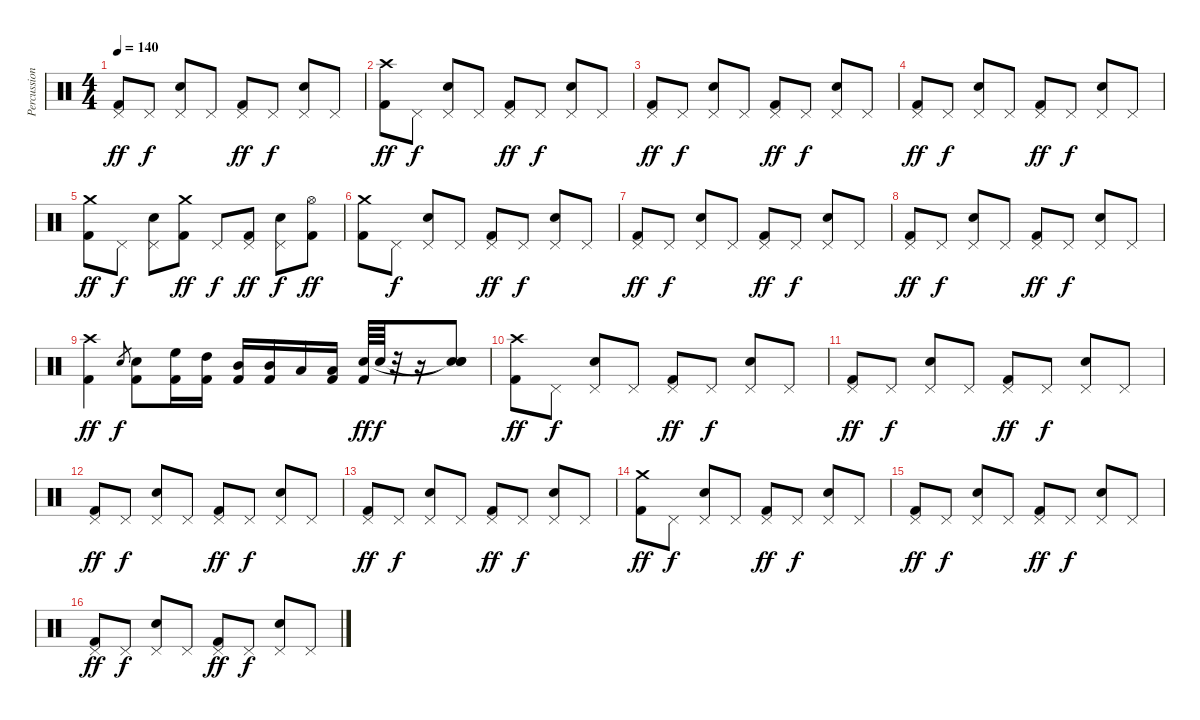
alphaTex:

\track ("Percussion" "Percussion") {instrument percussion}
\staff {score}
\articulation defaults
\ts (4 4)
\tempo 140
\clef neutral
\ks c
("Pedal Hi-Hat (hit)" "Kick (hit) 2").8{dy ff} "Pedal Hi-Hat (hit)".8{dy f} ("Pedal Hi-Hat (hit)" "Snare (hit) 2").8 "Pedal Hi-Hat (hit)".8 ("Pedal Hi-Hat (hit)" "Kick (hit) 2").8{dy ff} "Pedal Hi-Hat (hit)".8{dy f} ("Pedal Hi-Hat (hit)" "Snare (hit) 2").8 "Pedal Hi-Hat (hit)".8 |
("Crash high (hit)" "Kick (hit) 2").8{dy ff} "Pedal Hi-Hat (hit)".8{dy f} ("Pedal Hi-Hat (hit)" "Snare (hit) 2").8 "Pedal Hi-Hat (hit)".8 ("Pedal Hi-Hat (hit)" "Kick (hit) 2").8{dy ff} "Pedal Hi-Hat (hit)".8{dy f} ("Pedal Hi-Hat (hit)" "Snare (hit) 2").8 "Pedal Hi-Hat (hit)".8 |
("Pedal Hi-Hat (hit)" "Kick (hit) 2").8{dy ff} "Pedal Hi-Hat (hit)".8{dy f} ("Pedal Hi-Hat (hit)" "Snare (hit) 2").8 "Pedal Hi-Hat (hit)".8 ("Pedal Hi-Hat (hit)" "Kick (hit) 2").8{dy ff} "Pedal Hi-Hat (hit)".8{dy f} ("Pedal Hi-Hat (hit)" "Snare (hit) 2").8 "Pedal Hi-Hat (hit)".8 |
("Pedal Hi-Hat (hit)" "Kick (hit) 2").8{dy ff} "Pedal Hi-Hat (hit)".8{dy f} ("Pedal Hi-Hat (hit)" "Snare (hit) 2").8 "Pedal Hi-Hat (hit)".8 ("Pedal Hi-Hat (hit)" "Kick (hit) 2").8{dy ff} "Pedal Hi-Hat (hit)".8{dy f} ("Pedal Hi-Hat (hit)" "Snare (hit) 2").8 "Pedal Hi-Hat (hit)".8 |
("Crash medium (hit)" "Kick (hit) 2").8{dy ff} "Pedal Hi-Hat (hit)".8{dy f} ("Pedal Hi-Hat (hit)" "Snare (hit) 2").8 ("Crash medium (hit)" "Kick (hit) 2").8{dy ff} "Pedal Hi-Hat (hit)".8{dy f} ("Pedal Hi-Hat (hit)" "Kick (hit) 2").8{dy ff} ("Pedal Hi-Hat (hit)" "Snare (hit) 2").8{dy f} ("Hi-Hat (open)" "Kick (hit) 2").8{dy ff} |
("Crash medium (hit)" "Kick (hit) 2").8 "Pedal Hi-Hat (hit)".8{dy f} ("Pedal Hi-Hat (hit)" "Snare (hit) 2").8 "Pedal Hi-Hat (hit)".8 ("Pedal Hi-Hat (hit)" "Kick (hit) 2").8{dy ff} "Pedal Hi-Hat (hit)".8{dy f} ("Pedal Hi-Hat (hit)" "Snare (hit) 2").8 "Pedal Hi-Hat (hit)".8 |
("Pedal Hi-Hat (hit)" "Kick (hit) 2").8{dy ff} "Pedal Hi-Hat (hit)".8{dy f} ("Pedal Hi-Hat (hit)" "Snare (hit) 2").8 "Pedal Hi-Hat (hit)".8 ("Pedal Hi-Hat (hit)" "Kick (hit) 2").8{dy ff} "Pedal Hi-Hat (hit)".8{dy f} ("Pedal Hi-Hat (hit)" "Snare (hit) 2").8 "Pedal Hi-Hat (hit)".8 |
("Pedal Hi-Hat (hit)" "Kick (hit) 2").8{dy ff} "Pedal Hi-Hat (hit)".8{dy f} ("Pedal Hi-Hat (hit)" "Snare (hit) 2").8 "Pedal Hi-Hat (hit)".8 ("Pedal Hi-Hat (hit)" "Kick (hit) 2").8{dy ff} "Pedal Hi-Hat (hit)".8{dy f} ("Pedal Hi-Hat (hit)" "Snare (hit) 2").8 "Pedal Hi-Hat (hit)".8 |
("Crash high (hit)" "Kick (hit) 2").4{dy ff} "Snare (hit) 2".8{gr dy f} ("Snare (hit) 2" "Kick (hit) 2").8 ("High Floor Tom (hit)" "Kick (hit) 2").16 ("High Tom (hit)" "Kick (hit) 2").16 ("Mid Tom (hit)" "Kick (hit) 2").16 ("Mid Tom (hit)" "Kick (hit) 2").16 "Low Tom (hit)".16 ("Low Tom (hit)" "Kick (hit) 2").16 ("Kick (hit) 2" "Snare (hit) 2").64{dy ff} "Snare (hit) 2".64{dy f} r.32 r.16 ("Snare (hit)"{t} "Snare (hit)"{t} "Snare (hit)").8 |
("Crash high (hit)" "Kick (hit) 2").8{dy ff} "Pedal Hi-Hat (hit)".8{dy f} ("Pedal Hi-Hat (hit)" "Snare (hit) 2").8 "Pedal Hi-Hat (hit)".8 ("Pedal Hi-Hat (hit)" "Kick (hit) 2").8{dy ff} "Pedal Hi-Hat (hit)".8{dy f} ("Pedal Hi-Hat (hit)" "Snare (hit) 2").8 "Pedal Hi-Hat (hit)".8 |
("Pedal Hi-Hat (hit)" "Kick (hit) 2").8{dy ff} "Pedal Hi-Hat (hit)".8{dy f} ("Pedal Hi-Hat (hit)" "Snare (hit) 2").8 "Pedal Hi-Hat (hit)".8 ("Pedal Hi-Hat (hit)" "Kick (hit) 2").8{dy ff} "Pedal Hi-Hat (hit)".8{dy f} ("Pedal Hi-Hat (hit)" "Snare (hit) 2").8 "Pedal Hi-Hat (hit)".8 |
("Pedal Hi-Hat (hit)" "Kick (hit) 2").8{dy ff} "Pedal Hi-Hat (hit)".8{dy f} ("Pedal Hi-Hat (hit)" "Snare (hit) 2").8 "Pedal Hi-Hat (hit)".8 ("Pedal Hi-Hat (hit)" "Kick (hit) 2").8{dy ff} "Pedal Hi-Hat (hit)".8{dy f} ("Pedal Hi-Hat (hit)" "Snare (hit) 2").8 "Pedal Hi-Hat (hit)".8 |
("Pedal Hi-Hat (hit)" "Kick (hit) 2").8{dy ff} "Pedal Hi-Hat (hit)".8{dy f} ("Pedal Hi-Hat (hit)" "Snare (hit) 2").8 "Pedal Hi-Hat (hit)".8 ("Pedal Hi-Hat (hit)" "Kick (hit) 2").8{dy ff} "Pedal Hi-Hat (hit)".8{dy f} ("Pedal Hi-Hat (hit)" "Snare (hit) 2").8 "Pedal Hi-Hat (hit)".8 |
("Crash medium (hit)" "Kick (hit) 2").8{dy ff} "Pedal Hi-Hat (hit)".8{dy f} ("Pedal Hi-Hat (hit)" "Snare (hit) 2").8 "Pedal Hi-Hat (hit)".8 ("Pedal Hi-Hat (hit)" "Kick (hit) 2").8{dy ff} "Pedal Hi-Hat (hit)".8{dy f} ("Pedal Hi-Hat (hit)" "Snare (hit) 2").8 "Pedal Hi-Hat (hit)".8 |
("Pedal Hi-Hat (hit)" "Kick (hit) 2").8{dy ff} "Pedal Hi-Hat (hit)".8{dy f} ("Pedal Hi-Hat (hit)" "Snare (hit) 2").8 "Pedal Hi-Hat (hit)".8 ("Pedal Hi-Hat (hit)" "Kick (hit) 2").8{dy ff} "Pedal Hi-Hat (hit)".8{dy f} ("Pedal Hi-Hat (hit)" "Snare (hit) 2").8 "Pedal Hi-Hat (hit)".8 |
("Pedal Hi-Hat (hit)" "Kick (hit) 2").8{dy ff} "Pedal Hi-Hat (hit)".8{dy f} ("Pedal Hi-Hat (hit)" "Snare (hit) 2").8 "Pedal Hi-Hat (hit)".8 ("Pedal Hi-Hat (hit)" "Kick (hit) 2").8{dy ff} "Pedal Hi-Hat (hit)".8{dy f} ("Pedal Hi-Hat (hit)" "Snare (hit) 2").8 "Pedal Hi-Hat (hit)".8
